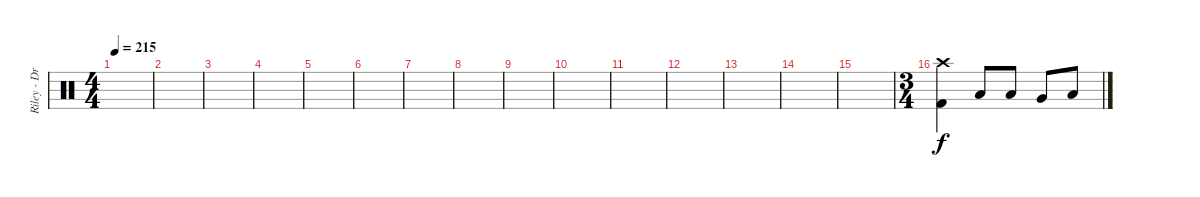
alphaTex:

\track ("Riley - Drums" "Riley - Dr") {instrument percussion}
\staff {score}
\articulation defaults
\ts (4 4)
\tempo 215
\clef neutral
\ks c
|
|
|
|
|
|
|
|
|
|
|
|
|
|
|
\ts (3 4)
("Crash high (hit)" "Kick (hit) 2").4 "Low Tom (hit)".8 "Low Tom (hit)".8 "Very Low Tom (hit)".8 "Low Floor Tom (hit)".8
